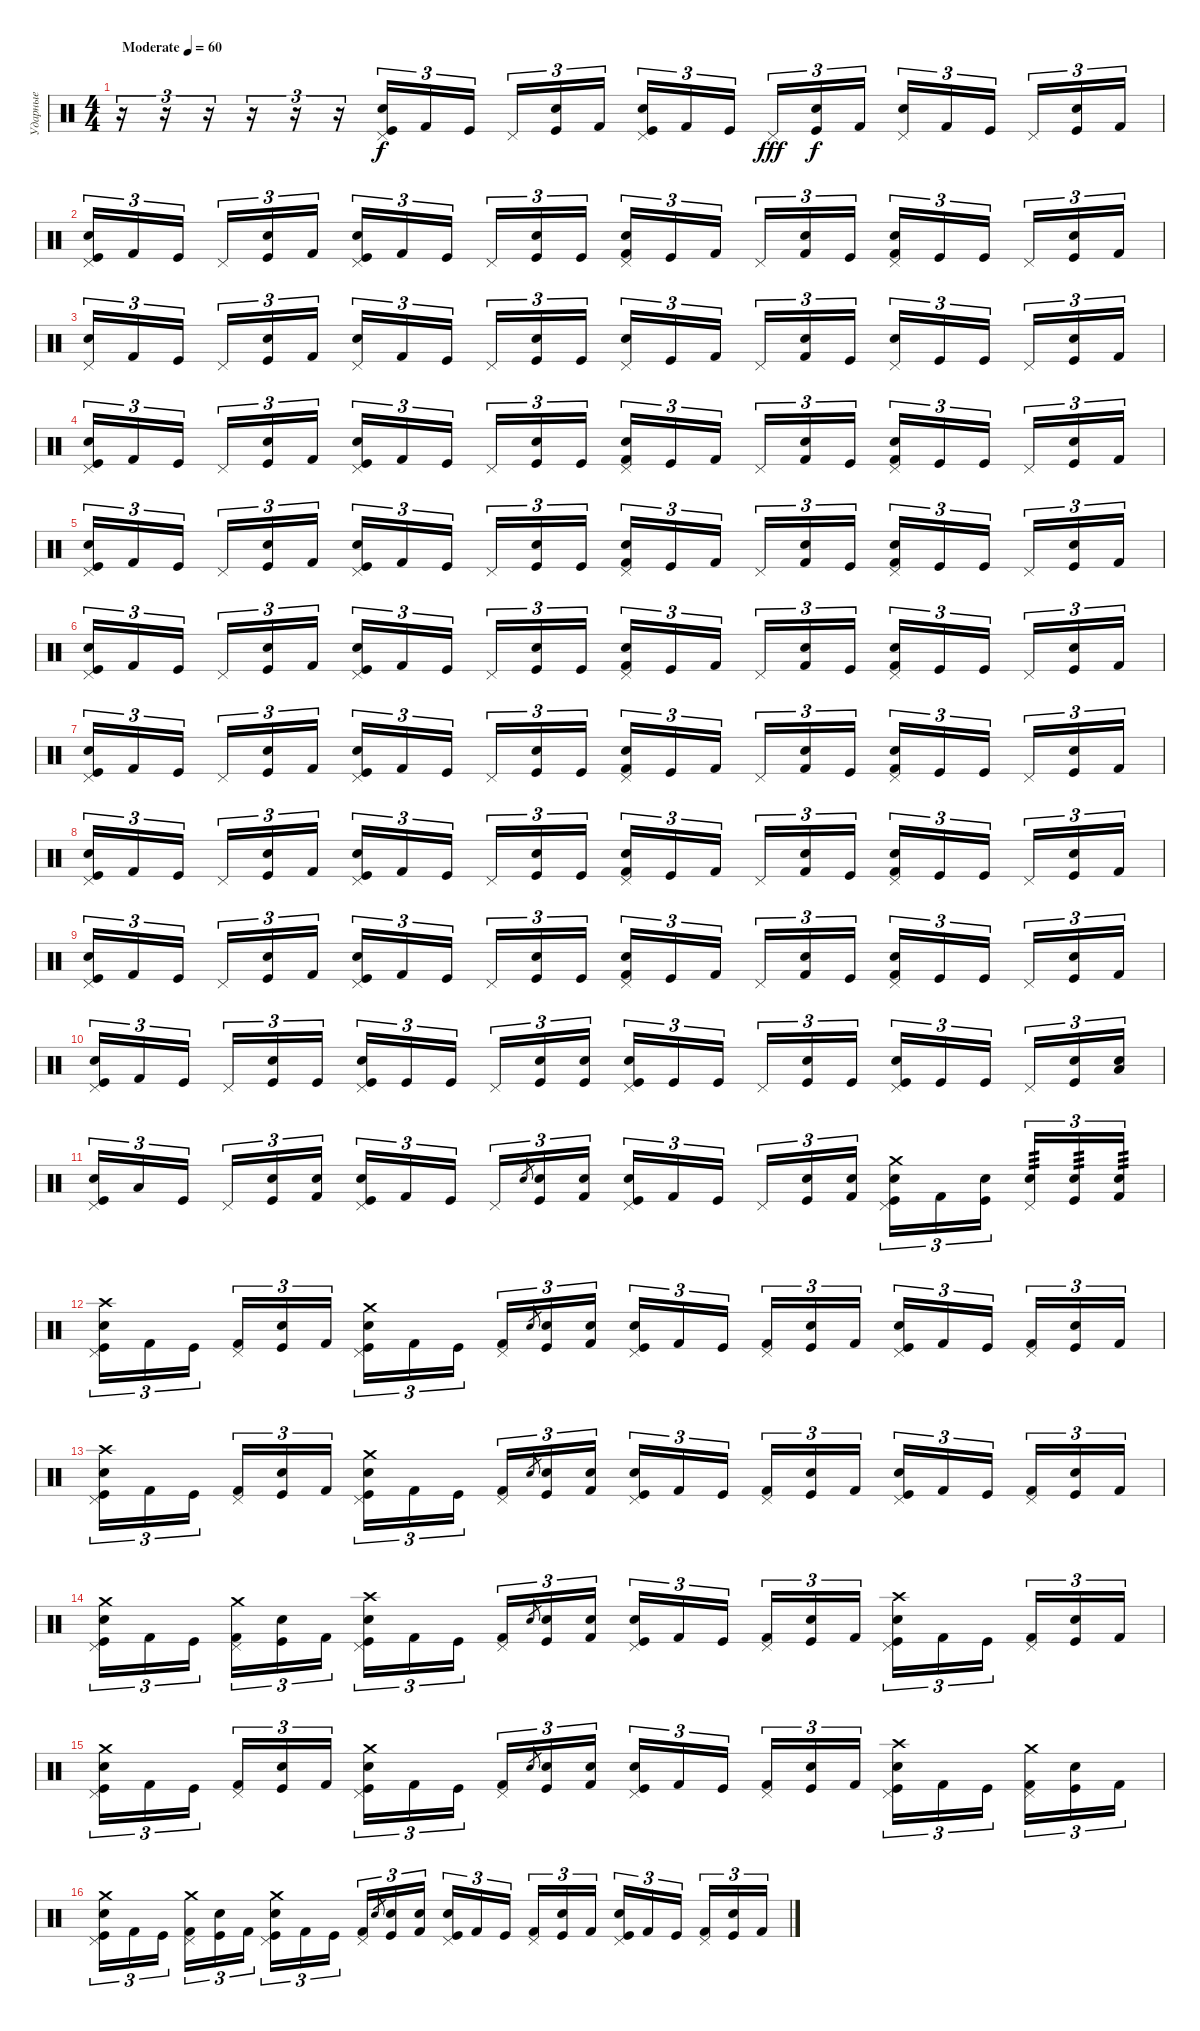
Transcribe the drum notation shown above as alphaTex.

\track ("Ударные" "Ударные") {instrument percussion}
\staff {score}
\articulation defaults
\ts (4 4)
\tempo (60 "Moderate")
\clef neutral
\ks c
r.16{tu (3 2) dy f} r.16{tu (3 2)} r.16{tu (3 2)} r.16{tu (3 2)} r.16{tu (3 2)} r.16{tu (3 2)} ("Snare (hit) 2" "Kick (hit)" "Pedal Hi-Hat (hit)").16{tu (3 2)} "Kick (hit) 2".16{tu (3 2)} "Kick (hit)".16{tu (3 2) beam splitsecondary} "Pedal Hi-Hat (hit)".16{tu (3 2)} ("Electric Snare (hit)" "Kick (hit)").16{tu (3 2)} "Kick (hit) 2".16{tu (3 2)} ("Snare (hit) 2" "Kick (hit)" "Pedal Hi-Hat (hit)").16{tu (3 2)} "Kick (hit) 2".16{tu (3 2)} "Kick (hit)".16{tu (3 2) beam splitsecondary} "Pedal Hi-Hat (hit)".16{tu (3 2) dy fff} ("Snare (hit) 2" "Kick (hit)").16{tu (3 2) dy f} "Kick (hit) 2".16{tu (3 2)} ("Snare (hit) 2" "Pedal Hi-Hat (hit)").16{tu (3 2)} "Kick (hit) 2".16{tu (3 2)} "Kick (hit)".16{tu (3 2) beam splitsecondary} "Pedal Hi-Hat (hit)".16{tu (3 2)} ("Electric Snare (hit)" "Kick (hit)").16{tu (3 2)} "Kick (hit) 2".16{tu (3 2)} |
("Snare (hit) 2" "Kick (hit)" "Pedal Hi-Hat (hit)").16{tu (3 2)} "Kick (hit) 2".16{tu (3 2)} "Kick (hit)".16{tu (3 2) beam splitsecondary} "Pedal Hi-Hat (hit)".16{tu (3 2)} ("Snare (hit) 2" "Kick (hit)").16{tu (3 2)} "Kick (hit) 2".16{tu (3 2)} ("Snare (hit) 2" "Kick (hit)" "Pedal Hi-Hat (hit)").16{tu (3 2)} "Kick (hit) 2".16{tu (3 2)} "Kick (hit)".16{tu (3 2) beam splitsecondary} "Pedal Hi-Hat (hit)".16{tu (3 2)} ("Electric Snare (hit)" "Kick (hit)").16{tu (3 2)} "Kick (hit)".16{tu (3 2)} ("Snare (hit) 2" "Kick (hit) 2" "Pedal Hi-Hat (hit)").16{tu (3 2)} "Kick (hit)".16{tu (3 2)} "Kick (hit) 2".16{tu (3 2) beam splitsecondary} "Pedal Hi-Hat (hit)".16{tu (3 2)} ("Snare (hit) 2" "Kick (hit) 2").16{tu (3 2)} "Kick (hit)".16{tu (3 2)} ("Snare (hit) 2" "Kick (hit) 2" "Pedal Hi-Hat (hit)").16{tu (3 2)} "Kick (hit)".16{tu (3 2)} "Kick (hit)".16{tu (3 2) beam splitsecondary} "Pedal Hi-Hat (hit)".16{tu (3 2)} ("Snare (hit) 2" "Kick (hit)").16{tu (3 2)} "Kick (hit) 2".16{tu (3 2)} |
("Snare (hit) 2" "Pedal Hi-Hat (hit)").16{tu (3 2)} "Kick (hit) 2".16{tu (3 2)} "Kick (hit)".16{tu (3 2) beam splitsecondary} "Pedal Hi-Hat (hit)".16{tu (3 2)} ("Snare (hit) 2" "Kick (hit)").16{tu (3 2)} "Kick (hit) 2".16{tu (3 2)} ("Snare (hit) 2" "Pedal Hi-Hat (hit)").16{tu (3 2)} "Kick (hit) 2".16{tu (3 2)} "Kick (hit)".16{tu (3 2) beam splitsecondary} "Pedal Hi-Hat (hit)".16{tu (3 2)} ("Electric Snare (hit)" "Kick (hit)").16{tu (3 2)} "Kick (hit)".16{tu (3 2)} ("Snare (hit) 2" "Pedal Hi-Hat (hit)").16{tu (3 2)} "Kick (hit)".16{tu (3 2)} "Kick (hit) 2".16{tu (3 2) beam splitsecondary} "Pedal Hi-Hat (hit)".16{tu (3 2)} ("Snare (hit) 2" "Kick (hit) 2").16{tu (3 2)} "Kick (hit)".16{tu (3 2)} ("Snare (hit) 2" "Pedal Hi-Hat (hit)").16{tu (3 2)} "Kick (hit)".16{tu (3 2)} "Kick (hit)".16{tu (3 2) beam splitsecondary} "Pedal Hi-Hat (hit)".16{tu (3 2)} ("Snare (hit) 2" "Kick (hit)").16{tu (3 2)} "Kick (hit) 2".16{tu (3 2)} |
("Snare (hit) 2" "Kick (hit)" "Pedal Hi-Hat (hit)").16{tu (3 2)} "Kick (hit) 2".16{tu (3 2)} "Kick (hit)".16{tu (3 2) beam splitsecondary} "Pedal Hi-Hat (hit)".16{tu (3 2)} ("Snare (hit) 2" "Kick (hit)").16{tu (3 2)} "Kick (hit) 2".16{tu (3 2)} ("Snare (hit) 2" "Kick (hit)" "Pedal Hi-Hat (hit)").16{tu (3 2)} "Kick (hit) 2".16{tu (3 2)} "Kick (hit)".16{tu (3 2) beam splitsecondary} "Pedal Hi-Hat (hit)".16{tu (3 2)} ("Electric Snare (hit)" "Kick (hit)").16{tu (3 2)} "Kick (hit)".16{tu (3 2)} ("Snare (hit) 2" "Kick (hit) 2" "Pedal Hi-Hat (hit)").16{tu (3 2)} "Kick (hit)".16{tu (3 2)} "Kick (hit) 2".16{tu (3 2) beam splitsecondary} "Pedal Hi-Hat (hit)".16{tu (3 2)} ("Snare (hit) 2" "Kick (hit) 2").16{tu (3 2)} "Kick (hit)".16{tu (3 2)} ("Snare (hit) 2" "Kick (hit) 2" "Pedal Hi-Hat (hit)").16{tu (3 2)} "Kick (hit)".16{tu (3 2)} "Kick (hit)".16{tu (3 2) beam splitsecondary} "Pedal Hi-Hat (hit)".16{tu (3 2)} ("Snare (hit) 2" "Kick (hit)").16{tu (3 2)} "Kick (hit) 2".16{tu (3 2)} |
("Snare (hit) 2" "Kick (hit)" "Pedal Hi-Hat (hit)").16{tu (3 2)} "Kick (hit) 2".16{tu (3 2)} "Kick (hit)".16{tu (3 2) beam splitsecondary} "Pedal Hi-Hat (hit)".16{tu (3 2)} ("Snare (hit) 2" "Kick (hit)").16{tu (3 2)} "Kick (hit) 2".16{tu (3 2)} ("Snare (hit) 2" "Kick (hit)" "Pedal Hi-Hat (hit)").16{tu (3 2)} "Kick (hit) 2".16{tu (3 2)} "Kick (hit)".16{tu (3 2) beam splitsecondary} "Pedal Hi-Hat (hit)".16{tu (3 2)} ("Electric Snare (hit)" "Kick (hit)").16{tu (3 2)} "Kick (hit)".16{tu (3 2)} ("Snare (hit) 2" "Kick (hit) 2" "Pedal Hi-Hat (hit)").16{tu (3 2)} "Kick (hit)".16{tu (3 2)} "Kick (hit) 2".16{tu (3 2) beam splitsecondary} "Pedal Hi-Hat (hit)".16{tu (3 2)} ("Snare (hit) 2" "Kick (hit) 2").16{tu (3 2)} "Kick (hit)".16{tu (3 2)} ("Snare (hit) 2" "Kick (hit) 2" "Pedal Hi-Hat (hit)").16{tu (3 2)} "Kick (hit)".16{tu (3 2)} "Kick (hit)".16{tu (3 2) beam splitsecondary} "Pedal Hi-Hat (hit)".16{tu (3 2)} ("Snare (hit) 2" "Kick (hit)").16{tu (3 2)} "Kick (hit) 2".16{tu (3 2)} |
("Snare (hit) 2" "Kick (hit)" "Pedal Hi-Hat (hit)").16{tu (3 2)} "Kick (hit) 2".16{tu (3 2)} "Kick (hit)".16{tu (3 2) beam splitsecondary} "Pedal Hi-Hat (hit)".16{tu (3 2)} ("Snare (hit) 2" "Kick (hit)").16{tu (3 2)} "Kick (hit) 2".16{tu (3 2)} ("Snare (hit) 2" "Kick (hit)" "Pedal Hi-Hat (hit)").16{tu (3 2)} "Kick (hit) 2".16{tu (3 2)} "Kick (hit)".16{tu (3 2) beam splitsecondary} "Pedal Hi-Hat (hit)".16{tu (3 2)} ("Electric Snare (hit)" "Kick (hit)").16{tu (3 2)} "Kick (hit)".16{tu (3 2)} ("Snare (hit) 2" "Kick (hit) 2" "Pedal Hi-Hat (hit)").16{tu (3 2)} "Kick (hit)".16{tu (3 2)} "Kick (hit) 2".16{tu (3 2) beam splitsecondary} "Pedal Hi-Hat (hit)".16{tu (3 2)} ("Snare (hit) 2" "Kick (hit) 2").16{tu (3 2)} "Kick (hit)".16{tu (3 2)} ("Snare (hit) 2" "Kick (hit) 2" "Pedal Hi-Hat (hit)").16{tu (3 2)} "Kick (hit)".16{tu (3 2)} "Kick (hit)".16{tu (3 2) beam splitsecondary} "Pedal Hi-Hat (hit)".16{tu (3 2)} ("Snare (hit) 2" "Kick (hit)").16{tu (3 2)} "Kick (hit) 2".16{tu (3 2)} |
("Snare (hit) 2" "Kick (hit)" "Pedal Hi-Hat (hit)").16{tu (3 2)} "Kick (hit) 2".16{tu (3 2)} "Kick (hit)".16{tu (3 2) beam splitsecondary} "Pedal Hi-Hat (hit)".16{tu (3 2)} ("Snare (hit) 2" "Kick (hit)").16{tu (3 2)} "Kick (hit) 2".16{tu (3 2)} ("Snare (hit) 2" "Kick (hit)" "Pedal Hi-Hat (hit)").16{tu (3 2)} "Kick (hit) 2".16{tu (3 2)} "Kick (hit)".16{tu (3 2) beam splitsecondary} "Pedal Hi-Hat (hit)".16{tu (3 2)} ("Electric Snare (hit)" "Kick (hit)").16{tu (3 2)} "Kick (hit)".16{tu (3 2)} ("Snare (hit) 2" "Kick (hit) 2" "Pedal Hi-Hat (hit)").16{tu (3 2)} "Kick (hit)".16{tu (3 2)} "Kick (hit) 2".16{tu (3 2) beam splitsecondary} "Pedal Hi-Hat (hit)".16{tu (3 2)} ("Snare (hit) 2" "Kick (hit) 2").16{tu (3 2)} "Kick (hit)".16{tu (3 2)} ("Snare (hit) 2" "Kick (hit) 2" "Pedal Hi-Hat (hit)").16{tu (3 2)} "Kick (hit)".16{tu (3 2)} "Kick (hit)".16{tu (3 2) beam splitsecondary} "Pedal Hi-Hat (hit)".16{tu (3 2)} ("Snare (hit) 2" "Kick (hit)").16{tu (3 2)} "Kick (hit) 2".16{tu (3 2)} |
("Snare (hit) 2" "Kick (hit)" "Pedal Hi-Hat (hit)").16{tu (3 2)} "Kick (hit) 2".16{tu (3 2)} "Kick (hit)".16{tu (3 2) beam splitsecondary} "Pedal Hi-Hat (hit)".16{tu (3 2)} ("Snare (hit) 2" "Kick (hit)").16{tu (3 2)} "Kick (hit) 2".16{tu (3 2)} ("Snare (hit) 2" "Kick (hit)" "Pedal Hi-Hat (hit)").16{tu (3 2)} "Kick (hit) 2".16{tu (3 2)} "Kick (hit)".16{tu (3 2) beam splitsecondary} "Pedal Hi-Hat (hit)".16{tu (3 2)} ("Electric Snare (hit)" "Kick (hit)").16{tu (3 2)} "Kick (hit)".16{tu (3 2)} ("Snare (hit) 2" "Kick (hit) 2" "Pedal Hi-Hat (hit)").16{tu (3 2)} "Kick (hit)".16{tu (3 2)} "Kick (hit) 2".16{tu (3 2) beam splitsecondary} "Pedal Hi-Hat (hit)".16{tu (3 2)} ("Snare (hit) 2" "Kick (hit) 2").16{tu (3 2)} "Kick (hit)".16{tu (3 2)} ("Snare (hit) 2" "Kick (hit) 2" "Pedal Hi-Hat (hit)").16{tu (3 2)} "Kick (hit)".16{tu (3 2)} "Kick (hit)".16{tu (3 2) beam splitsecondary} "Pedal Hi-Hat (hit)".16{tu (3 2)} ("Snare (hit) 2" "Kick (hit)").16{tu (3 2)} "Kick (hit) 2".16{tu (3 2)} |
("Snare (hit) 2" "Kick (hit)" "Pedal Hi-Hat (hit)").16{tu (3 2)} "Kick (hit) 2".16{tu (3 2)} "Kick (hit)".16{tu (3 2) beam splitsecondary} "Pedal Hi-Hat (hit)".16{tu (3 2)} ("Snare (hit) 2" "Kick (hit)").16{tu (3 2)} "Kick (hit) 2".16{tu (3 2)} ("Snare (hit) 2" "Kick (hit)" "Pedal Hi-Hat (hit)").16{tu (3 2)} "Kick (hit) 2".16{tu (3 2)} "Kick (hit)".16{tu (3 2) beam splitsecondary} "Pedal Hi-Hat (hit)".16{tu (3 2)} ("Electric Snare (hit)" "Kick (hit)").16{tu (3 2)} "Kick (hit)".16{tu (3 2)} ("Snare (hit) 2" "Kick (hit) 2" "Pedal Hi-Hat (hit)").16{tu (3 2)} "Kick (hit)".16{tu (3 2)} "Kick (hit) 2".16{tu (3 2) beam splitsecondary} "Pedal Hi-Hat (hit)".16{tu (3 2)} ("Snare (hit) 2" "Kick (hit) 2").16{tu (3 2)} "Kick (hit)".16{tu (3 2)} ("Snare (hit) 2" "Kick (hit) 2" "Pedal Hi-Hat (hit)").16{tu (3 2)} "Kick (hit)".16{tu (3 2)} "Kick (hit)".16{tu (3 2) beam splitsecondary} "Pedal Hi-Hat (hit)".16{tu (3 2)} ("Snare (hit) 2" "Kick (hit)").16{tu (3 2)} "Kick (hit) 2".16{tu (3 2)} |
("Snare (hit) 2" "Kick (hit)" "Pedal Hi-Hat (hit)").16{tu (3 2)} "Kick (hit) 2".16{tu (3 2)} "Kick (hit)".16{tu (3 2) beam splitsecondary} "Pedal Hi-Hat (hit)".16{tu (3 2)} ("Snare (hit) 2" "Kick (hit)").16{tu (3 2)} "Kick (hit)".16{tu (3 2)} ("Snare (hit) 2" "Kick (hit)" "Pedal Hi-Hat (hit)").16{tu (3 2)} "Kick (hit)".16{tu (3 2)} "Kick (hit)".16{tu (3 2) beam splitsecondary} "Pedal Hi-Hat (hit)".16{tu (3 2)} ("Electric Snare (hit)" "Kick (hit)").16{tu (3 2)} ("Electric Snare (hit)" "Kick (hit)").16{tu (3 2)} ("Snare (hit) 2" "Kick (hit)" "Pedal Hi-Hat (hit)").16{tu (3 2)} "Kick (hit)".16{tu (3 2)} "Kick (hit)".16{tu (3 2) beam splitsecondary} "Pedal Hi-Hat (hit)".16{tu (3 2)} ("Snare (hit) 2" "Kick (hit)").16{tu (3 2)} "Kick (hit)".16{tu (3 2)} ("Snare (hit) 2" "Kick (hit)" "Pedal Hi-Hat (hit)").16{tu (3 2)} "Kick (hit)".16{tu (3 2)} "Kick (hit)".16{tu (3 2) beam splitsecondary} "Pedal Hi-Hat (hit)".16{tu (3 2)} ("Snare (hit) 2" "Kick (hit)").16{tu (3 2)} ("Snare (hit) 2" "Low Tom (hit)").16{tu (3 2)} |
("Snare (hit) 2" "Kick (hit)" "Pedal Hi-Hat (hit)").16{tu (3 2)} "Low Tom (hit)".16{tu (3 2)} "Kick (hit)".16{tu (3 2) beam splitsecondary} "Pedal Hi-Hat (hit)".16{tu (3 2)} ("Snare (hit) 2" "Kick (hit)").16{tu (3 2)} ("Snare (hit) 2" "Kick (hit) 2").16{tu (3 2)} ("Snare (hit) 2" "Kick (hit)" "Pedal Hi-Hat (hit)").16{tu (3 2)} "Kick (hit) 2".16{tu (3 2)} "Kick (hit)".16{tu (3 2) beam splitsecondary} "Pedal Hi-Hat (hit)".16{tu (3 2)} "Electric Snare (hit)".8{gr} ("Electric Snare (hit)" "Kick (hit)").16{tu (3 2)} ("Electric Snare (hit)" "Kick (hit) 2").16{tu (3 2)} ("Snare (hit) 2" "Kick (hit)" "Pedal Hi-Hat (hit)").16{tu (3 2)} "Kick (hit) 2".16{tu (3 2)} "Kick (hit)".16{tu (3 2) beam splitsecondary} "Pedal Hi-Hat (hit)".16{tu (3 2)} ("Snare (hit) 2" "Kick (hit)").16{tu (3 2)} ("Electric Snare (hit)" "Kick (hit) 2").16{tu (3 2)} ("Snare (hit) 2" "Kick (hit)" "Pedal Hi-Hat (hit)" "Crash medium (hit)").16{tu (3 2)} "Kick (hit) 2".16{tu (3 2)} ("Snare (hit) 2" "Kick (hit)").16{tu (3 2) beam splitsecondary} ("Electric Snare (hit)" "Pedal Hi-Hat (hit)").16{tu (3 2) tp 3} ("Snare (hit) 2" "Kick (hit)").16{tu (3 2) tp 3} ("Electric Snare (hit)" "Kick (hit) 2").16{tu (3 2) tp 3} |
("Snare (hit) 2" "Kick (hit)" "Pedal Hi-Hat (hit)" "Crash high (hit)").16{tu (3 2)} "Kick (hit) 2".16{tu (3 2)} "Kick (hit)".16{tu (3 2) beam splitsecondary} ("Kick (hit) 2" "Pedal Hi-Hat (hit)").16{tu (3 2)} ("Snare (hit) 2" "Kick (hit)").16{tu (3 2)} "Kick (hit) 2".16{tu (3 2)} ("Snare (hit) 2" "Kick (hit)" "Pedal Hi-Hat (hit)" "Crash medium (hit)").16{tu (3 2)} "Kick (hit) 2".16{tu (3 2)} "Kick (hit)".16{tu (3 2) beam splitsecondary} ("Kick (hit) 2" "Pedal Hi-Hat (hit)").16{tu (3 2)} "Electric Snare (hit)".8{gr} ("Electric Snare (hit)" "Kick (hit)").16{tu (3 2)} ("Electric Snare (hit)" "Kick (hit) 2").16{tu (3 2)} ("Snare (hit) 2" "Kick (hit)" "Pedal Hi-Hat (hit)").16{tu (3 2)} "Kick (hit) 2".16{tu (3 2)} "Kick (hit)".16{tu (3 2) beam splitsecondary} ("Kick (hit) 2" "Pedal Hi-Hat (hit)").16{tu (3 2)} ("Snare (hit) 2" "Kick (hit)").16{tu (3 2)} "Kick (hit) 2".16{tu (3 2)} ("Snare (hit) 2" "Kick (hit)" "Pedal Hi-Hat (hit)").16{tu (3 2)} "Kick (hit) 2".16{tu (3 2)} "Kick (hit)".16{tu (3 2) beam splitsecondary} ("Kick (hit) 2" "Pedal Hi-Hat (hit)").16{tu (3 2)} ("Snare (hit) 2" "Kick (hit)").16{tu (3 2)} "Kick (hit) 2".16{tu (3 2)} |
("Snare (hit) 2" "Kick (hit)" "Pedal Hi-Hat (hit)" "Crash high (hit)").16{tu (3 2)} "Kick (hit) 2".16{tu (3 2)} "Kick (hit)".16{tu (3 2) beam splitsecondary} ("Kick (hit) 2" "Pedal Hi-Hat (hit)").16{tu (3 2)} ("Snare (hit) 2" "Kick (hit)").16{tu (3 2)} "Kick (hit) 2".16{tu (3 2)} ("Snare (hit) 2" "Kick (hit)" "Pedal Hi-Hat (hit)" "Crash medium (hit)").16{tu (3 2)} "Kick (hit) 2".16{tu (3 2)} "Kick (hit)".16{tu (3 2) beam splitsecondary} ("Kick (hit) 2" "Pedal Hi-Hat (hit)").16{tu (3 2)} "Electric Snare (hit)".8{gr} ("Electric Snare (hit)" "Kick (hit)").16{tu (3 2)} ("Electric Snare (hit)" "Kick (hit) 2").16{tu (3 2)} ("Snare (hit) 2" "Kick (hit)" "Pedal Hi-Hat (hit)").16{tu (3 2)} "Kick (hit) 2".16{tu (3 2)} "Kick (hit)".16{tu (3 2) beam splitsecondary} ("Kick (hit) 2" "Pedal Hi-Hat (hit)").16{tu (3 2)} ("Snare (hit) 2" "Kick (hit)").16{tu (3 2)} "Kick (hit) 2".16{tu (3 2)} ("Snare (hit) 2" "Kick (hit)" "Pedal Hi-Hat (hit)").16{tu (3 2)} "Kick (hit) 2".16{tu (3 2)} "Kick (hit)".16{tu (3 2) beam splitsecondary} ("Kick (hit) 2" "Pedal Hi-Hat (hit)").16{tu (3 2)} ("Snare (hit) 2" "Kick (hit)").16{tu (3 2)} "Kick (hit) 2".16{tu (3 2)} |
("Snare (hit) 2" "Kick (hit)" "Pedal Hi-Hat (hit)" "Crash medium (hit)").16{tu (3 2)} "Kick (hit) 2".16{tu (3 2)} "Kick (hit)".16{tu (3 2) beam splitsecondary} ("Kick (hit) 2" "Pedal Hi-Hat (hit)" "Crash medium (hit)").16{tu (3 2)} ("Snare (hit) 2" "Kick (hit)").16{tu (3 2)} "Kick (hit) 2".16{tu (3 2)} ("Snare (hit) 2" "Kick (hit)" "Pedal Hi-Hat (hit)" "Crash high (hit)").16{tu (3 2)} "Kick (hit) 2".16{tu (3 2)} "Kick (hit)".16{tu (3 2) beam splitsecondary} ("Kick (hit) 2" "Pedal Hi-Hat (hit)").16{tu (3 2)} "Electric Snare (hit)".8{gr} ("Electric Snare (hit)" "Kick (hit)").16{tu (3 2)} ("Electric Snare (hit)" "Kick (hit) 2").16{tu (3 2)} ("Snare (hit) 2" "Kick (hit)" "Pedal Hi-Hat (hit)").16{tu (3 2)} "Kick (hit) 2".16{tu (3 2)} "Kick (hit)".16{tu (3 2) beam splitsecondary} ("Kick (hit) 2" "Pedal Hi-Hat (hit)").16{tu (3 2)} ("Snare (hit) 2" "Kick (hit)").16{tu (3 2)} "Kick (hit) 2".16{tu (3 2)} ("Snare (hit) 2" "Kick (hit)" "Pedal Hi-Hat (hit)" "Crash high (hit)").16{tu (3 2)} "Kick (hit) 2".16{tu (3 2)} "Kick (hit)".16{tu (3 2) beam splitsecondary} ("Kick (hit) 2" "Pedal Hi-Hat (hit)").16{tu (3 2)} ("Snare (hit) 2" "Kick (hit)").16{tu (3 2)} "Kick (hit) 2".16{tu (3 2)} |
("Snare (hit) 2" "Kick (hit)" "Pedal Hi-Hat (hit)" "Crash medium (hit)").16{tu (3 2)} "Kick (hit) 2".16{tu (3 2)} "Kick (hit)".16{tu (3 2) beam splitsecondary} ("Kick (hit) 2" "Pedal Hi-Hat (hit)").16{tu (3 2)} ("Snare (hit) 2" "Kick (hit)").16{tu (3 2)} "Kick (hit) 2".16{tu (3 2)} ("Snare (hit) 2" "Kick (hit)" "Pedal Hi-Hat (hit)" "Crash medium (hit)").16{tu (3 2)} "Kick (hit) 2".16{tu (3 2)} "Kick (hit)".16{tu (3 2) beam splitsecondary} ("Kick (hit) 2" "Pedal Hi-Hat (hit)").16{tu (3 2)} "Electric Snare (hit)".8{gr} ("Electric Snare (hit)" "Kick (hit)").16{tu (3 2)} ("Electric Snare (hit)" "Kick (hit) 2").16{tu (3 2)} ("Snare (hit) 2" "Kick (hit)" "Pedal Hi-Hat (hit)").16{tu (3 2)} "Kick (hit) 2".16{tu (3 2)} "Kick (hit)".16{tu (3 2) beam splitsecondary} ("Kick (hit) 2" "Pedal Hi-Hat (hit)").16{tu (3 2)} ("Snare (hit) 2" "Kick (hit)").16{tu (3 2)} "Kick (hit) 2".16{tu (3 2)} ("Snare (hit) 2" "Kick (hit)" "Pedal Hi-Hat (hit)" "Crash high (hit)").16{tu (3 2)} "Kick (hit) 2".16{tu (3 2)} "Kick (hit)".16{tu (3 2) beam splitsecondary} ("Kick (hit) 2" "Pedal Hi-Hat (hit)" "Crash medium (hit)").16{tu (3 2)} ("Snare (hit) 2" "Kick (hit)").16{tu (3 2)} "Kick (hit) 2".16{tu (3 2)} |
("Snare (hit) 2" "Kick (hit)" "Pedal Hi-Hat (hit)" "Crash medium (hit)").16{tu (3 2)} "Kick (hit) 2".16{tu (3 2)} "Kick (hit)".16{tu (3 2) beam splitsecondary} ("Kick (hit) 2" "Pedal Hi-Hat (hit)" "Crash medium (hit)").16{tu (3 2)} ("Snare (hit) 2" "Kick (hit)").16{tu (3 2)} "Kick (hit) 2".16{tu (3 2)} ("Snare (hit) 2" "Kick (hit)" "Pedal Hi-Hat (hit)" "Crash medium (hit)").16{tu (3 2)} "Kick (hit) 2".16{tu (3 2)} "Kick (hit)".16{tu (3 2) beam splitsecondary} ("Kick (hit) 2" "Pedal Hi-Hat (hit)").16{tu (3 2)} "Electric Snare (hit)".8{gr} ("Electric Snare (hit)" "Kick (hit)").16{tu (3 2)} ("Electric Snare (hit)" "Kick (hit) 2").16{tu (3 2)} ("Snare (hit) 2" "Kick (hit)" "Pedal Hi-Hat (hit)").16{tu (3 2)} "Kick (hit) 2".16{tu (3 2)} "Kick (hit)".16{tu (3 2) beam splitsecondary} ("Kick (hit) 2" "Pedal Hi-Hat (hit)").16{tu (3 2)} ("Snare (hit) 2" "Kick (hit)").16{tu (3 2)} "Kick (hit) 2".16{tu (3 2)} ("Snare (hit) 2" "Kick (hit)" "Pedal Hi-Hat (hit)").16{tu (3 2)} "Kick (hit) 2".16{tu (3 2)} "Kick (hit)".16{tu (3 2) beam splitsecondary} ("Kick (hit) 2" "Pedal Hi-Hat (hit)").16{tu (3 2)} ("Snare (hit) 2" "Kick (hit)").16{tu (3 2)} "Kick (hit) 2".16{tu (3 2)}
